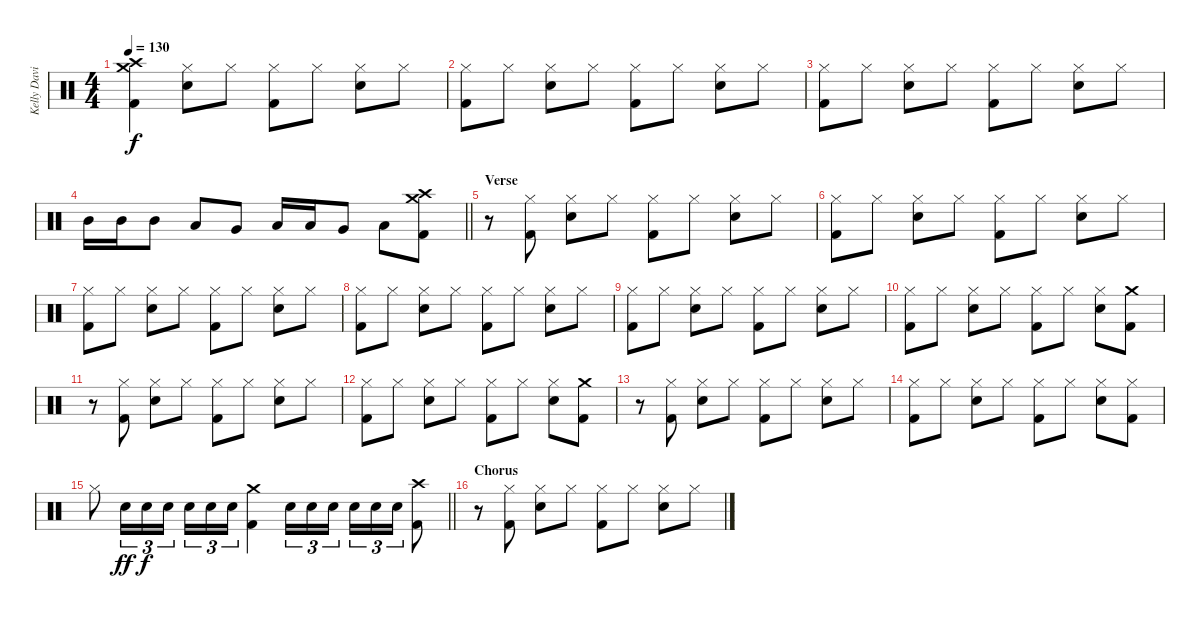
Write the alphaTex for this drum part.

\track ("Kelly David Smith" "Kelly Davi") {instrument percussion}
\staff {score}
\articulation defaults
\ts (4 4)
\tempo 130
\clef neutral
\ks c
("Crash high (hit)" "Crash medium (hit)" "Kick (hit) 2").4{dy f} ("Hi-Hat (closed)" "Snare (hit) 2").8 "Hi-Hat (closed)".8 ("Hi-Hat (closed)" "Kick (hit) 2").8 "Hi-Hat (closed)".8 ("Hi-Hat (closed)" "Snare (hit) 2").8 "Hi-Hat (closed)".8 |
("Hi-Hat (closed)" "Kick (hit) 2").8 "Hi-Hat (closed)".8 ("Hi-Hat (closed)" "Snare (hit) 2").8 "Hi-Hat (closed)".8 ("Hi-Hat (closed)" "Kick (hit) 2").8 "Hi-Hat (closed)".8 ("Hi-Hat (closed)" "Snare (hit) 2").8 "Hi-Hat (closed)".8 |
("Hi-Hat (closed)" "Kick (hit) 2").8 "Hi-Hat (closed)".8 ("Hi-Hat (closed)" "Snare (hit) 2").8 "Hi-Hat (closed)".8 ("Hi-Hat (closed)" "Kick (hit) 2").8 "Hi-Hat (closed)".8 ("Hi-Hat (closed)" "Snare (hit) 2").8 "Hi-Hat (closed)".8 |
\barLineRight lightlight "Mid Tom (hit)".16 "Mid Tom (hit)".16 "Mid Tom (hit)".8 "Low Tom (hit)".8 "Very Low Tom (hit)".8 "Low Tom (hit)".16 "Low Tom (hit)".16 "Very Low Tom (hit)".8 "Low Floor Tom (hit)".8
("Crash high (hit)" "Crash medium (hit)" "Kick (hit) 2").8 |
\section ("" "Verse")
r.8 ("Hi-Hat (closed)" "Kick (hit) 2").8 ("Hi-Hat (closed)" "Snare (hit) 2").8 "Hi-Hat (closed)".8 ("Hi-Hat (closed)" "Kick (hit) 2").8 "Hi-Hat (closed)".8 ("Hi-Hat (closed)" "Snare (hit) 2").8 "Hi-Hat (closed)".8 |
("Hi-Hat (closed)" "Kick (hit) 2").8 "Hi-Hat (closed)".8 ("Hi-Hat (closed)" "Snare (hit) 2").8 "Hi-Hat (closed)".8 ("Hi-Hat (closed)" "Kick (hit) 2").8 "Hi-Hat (closed)".8 ("Hi-Hat (closed)" "Snare (hit) 2").8 "Hi-Hat (closed)".8 |
("Hi-Hat (closed)" "Kick (hit) 2").8 "Hi-Hat (closed)".8 ("Hi-Hat (closed)" "Snare (hit) 2").8 "Hi-Hat (closed)".8 ("Hi-Hat (closed)" "Kick (hit) 2").8 "Hi-Hat (closed)".8 ("Hi-Hat (closed)" "Snare (hit) 2").8 "Hi-Hat (closed)".8 |
("Hi-Hat (closed)" "Kick (hit) 2").8 "Hi-Hat (closed)".8 ("Hi-Hat (closed)" "Snare (hit) 2").8 "Hi-Hat (closed)".8 ("Hi-Hat (closed)" "Kick (hit) 2").8 "Hi-Hat (closed)".8 ("Hi-Hat (closed)" "Snare (hit) 2").8 "Hi-Hat (closed)".8 |
("Hi-Hat (closed)" "Kick (hit) 2").8 "Hi-Hat (closed)".8 ("Hi-Hat (closed)" "Snare (hit) 2").8 "Hi-Hat (closed)".8 ("Hi-Hat (closed)" "Kick (hit) 2").8 "Hi-Hat (closed)".8 ("Hi-Hat (closed)" "Snare (hit) 2").8 "Hi-Hat (closed)".8 |
("Hi-Hat (closed)" "Kick (hit) 2").8 "Hi-Hat (closed)".8 ("Hi-Hat (closed)" "Snare (hit) 2").8 "Hi-Hat (closed)".8 ("Hi-Hat (closed)" "Kick (hit) 2").8 "Hi-Hat (closed)".8 ("Hi-Hat (closed)" "Snare (hit) 2").8 ("Crash medium (hit)" "Kick (hit) 2").8 |
r.8 ("Hi-Hat (closed)" "Kick (hit) 2").8 ("Hi-Hat (closed)" "Snare (hit) 2").8 "Hi-Hat (closed)".8 ("Hi-Hat (closed)" "Kick (hit) 2").8 "Hi-Hat (closed)".8 ("Hi-Hat (closed)" "Snare (hit) 2").8 "Hi-Hat (closed)".8 |
("Hi-Hat (closed)" "Kick (hit) 2").8 "Hi-Hat (closed)".8 ("Hi-Hat (closed)" "Snare (hit) 2").8 "Hi-Hat (closed)".8 ("Hi-Hat (closed)" "Kick (hit) 2").8 "Hi-Hat (closed)".8 ("Hi-Hat (closed)" "Snare (hit) 2").8 ("Crash medium (hit)" "Kick (hit) 2").8 |
r.8 ("Hi-Hat (closed)" "Kick (hit) 2").8 ("Hi-Hat (closed)" "Snare (hit) 2").8 "Hi-Hat (closed)".8 ("Hi-Hat (closed)" "Kick (hit) 2").8 "Hi-Hat (closed)".8 ("Hi-Hat (closed)" "Snare (hit) 2").8 "Hi-Hat (closed)".8 |
("Hi-Hat (closed)" "Kick (hit) 2").8 "Hi-Hat (closed)".8 ("Hi-Hat (closed)" "Snare (hit) 2").8 "Hi-Hat (closed)".8 ("Hi-Hat (closed)" "Kick (hit) 2").8 "Hi-Hat (closed)".8 ("Hi-Hat (closed)" "Snare (hit) 2").8 ("Hi-Hat (closed)" "Kick (hit) 2").8 |
\barLineRight lightlight "Hi-Hat (closed)".8 "Snare (hit) 2".16{tu (3 2) dy ff} "Snare (hit) 2".16{tu (3 2) dy f} "Snare (hit) 2".16{tu (3 2)} "Snare (hit) 2".16{tu (3 2)} "Snare (hit) 2".16{tu (3 2)} "Snare (hit) 2".16{tu (3 2)}
("Crash medium (hit)" "Kick (hit) 2").4 "Snare (hit) 2".16{tu (3 2)} "Snare (hit) 2".16{tu (3 2)} "Snare (hit) 2".16{tu (3 2)} "Snare (hit) 2".16{tu (3 2)} "Snare (hit) 2".16{tu (3 2)} "Snare (hit) 2".16{tu (3 2)} ("Crash high (hit)" "Kick (hit) 2").8 |
\section ("" "Chorus")
r.8 ("Hi-Hat (closed)" "Kick (hit) 2").8 ("Hi-Hat (closed)" "Snare (hit) 2").8 "Hi-Hat (closed)".8 ("Hi-Hat (closed)" "Kick (hit) 2").8 "Hi-Hat (closed)".8 ("Hi-Hat (closed)" "Snare (hit) 2").8 "Hi-Hat (closed)".8
